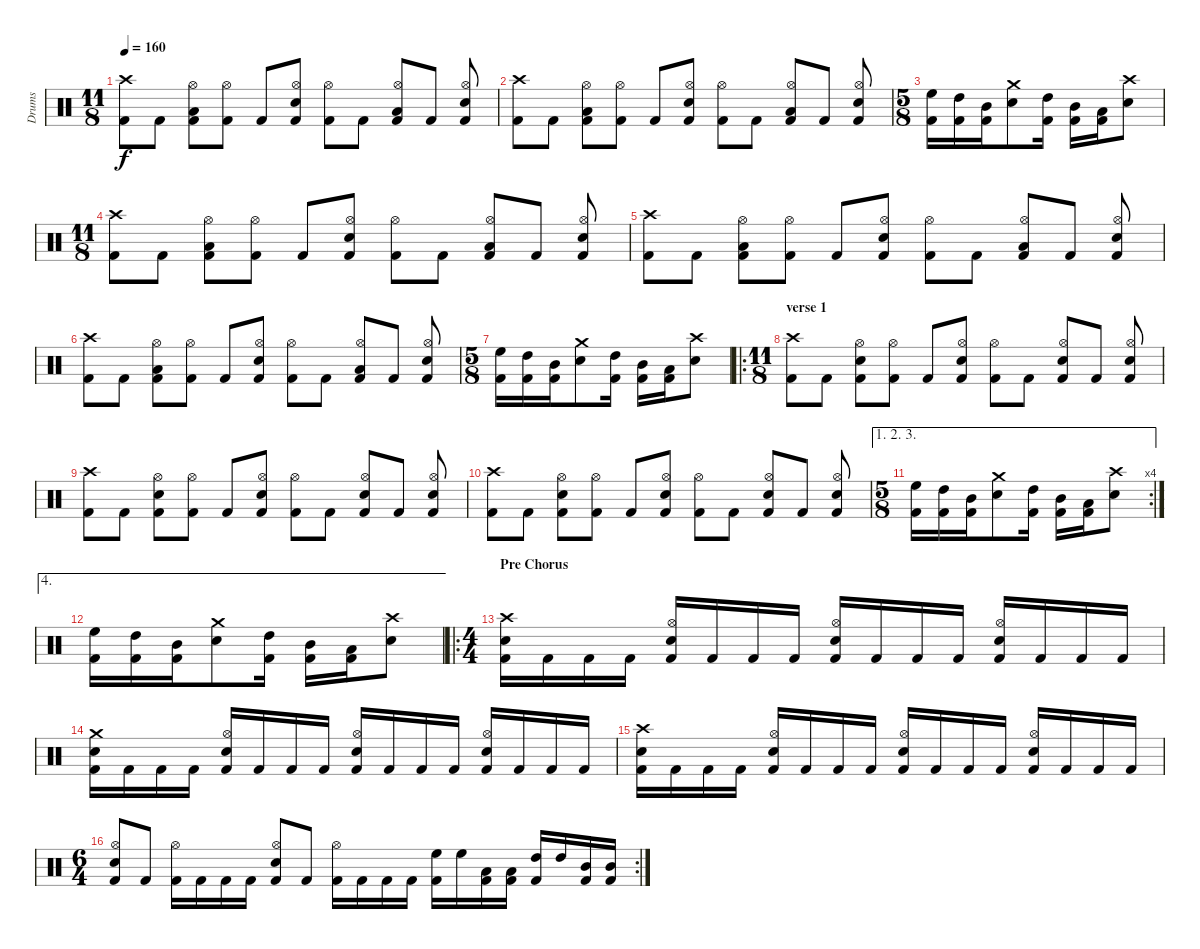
\track ("Drums" "Drums") {instrument percussion}
\staff {score}
\articulation defaults
\ts (11 8)
\tempo 160
\clef neutral
\ks c
("Crash high (hit)" "Kick (hit) 2").8{dy f} "Kick (hit) 2".8 ("Hi-Hat (open)" "Low Floor Tom (hit)" "Kick (hit) 2").8 ("Hi-Hat (open)" "Kick (hit) 2").8 "Kick (hit) 2".8 ("Hi-Hat (open)" "Electric Snare (hit)" "Kick (hit) 2").8 ("Hi-Hat (open)" "Kick (hit) 2").8 "Kick (hit) 2".8 ("Hi-Hat (open)" "Low Floor Tom (hit)" "Kick (hit) 2").8 "Kick (hit) 2".8 ("Hi-Hat (open)" "Snare (hit) 2" "Kick (hit) 2").8 |
("Crash high (hit)" "Kick (hit) 2").8 "Kick (hit) 2".8 ("Hi-Hat (open)" "Low Floor Tom (hit)" "Kick (hit) 2").8 ("Hi-Hat (open)" "Kick (hit) 2").8 "Kick (hit) 2".8 ("Hi-Hat (open)" "Electric Snare (hit)" "Kick (hit) 2").8 ("Hi-Hat (open)" "Kick (hit) 2").8 "Kick (hit) 2".8 ("Hi-Hat (open)" "Low Floor Tom (hit)" "Kick (hit) 2").8 "Kick (hit) 2".8 ("Hi-Hat (open)" "Snare (hit) 2" "Kick (hit) 2").8 |
\ts (5 8)
("High Floor Tom (hit)" "Kick (hit) 2").16 ("High Tom (hit)" "Kick (hit) 2").16 ("Mid Tom (hit)" "Kick (hit) 2").16 ("Crash medium (hit)" "Snare (hit) 2").8 ("High Tom (hit)" "Kick (hit) 2").16 ("Mid Tom (hit)" "Kick (hit) 2").16 ("Low Tom (hit)" "Kick (hit) 2").16 ("Crash high (hit)" "Snare (hit) 2").8 |
\ts (11 8)
("Crash high (hit)" "Kick (hit) 2").8 "Kick (hit) 2".8 ("Hi-Hat (open)" "Low Floor Tom (hit)" "Kick (hit) 2").8 ("Hi-Hat (open)" "Kick (hit) 2").8 "Kick (hit) 2".8 ("Hi-Hat (open)" "Electric Snare (hit)" "Kick (hit) 2").8 ("Hi-Hat (open)" "Kick (hit) 2").8 "Kick (hit) 2".8 ("Hi-Hat (open)" "Low Floor Tom (hit)" "Kick (hit) 2").8 "Kick (hit) 2".8 ("Hi-Hat (open)" "Snare (hit) 2" "Kick (hit) 2").8 |
("Crash high (hit)" "Kick (hit) 2").8 "Kick (hit) 2".8 ("Hi-Hat (open)" "Low Floor Tom (hit)" "Kick (hit) 2").8 ("Hi-Hat (open)" "Kick (hit) 2").8 "Kick (hit) 2".8 ("Hi-Hat (open)" "Electric Snare (hit)" "Kick (hit) 2").8 ("Hi-Hat (open)" "Kick (hit) 2").8 "Kick (hit) 2".8 ("Hi-Hat (open)" "Low Floor Tom (hit)" "Kick (hit) 2").8 "Kick (hit) 2".8 ("Hi-Hat (open)" "Snare (hit) 2" "Kick (hit) 2").8 |
("Crash high (hit)" "Kick (hit) 2").8 "Kick (hit) 2".8 ("Hi-Hat (open)" "Low Floor Tom (hit)" "Kick (hit) 2").8 ("Hi-Hat (open)" "Kick (hit) 2").8 "Kick (hit) 2".8 ("Hi-Hat (open)" "Electric Snare (hit)" "Kick (hit) 2").8 ("Hi-Hat (open)" "Kick (hit) 2").8 "Kick (hit) 2".8 ("Hi-Hat (open)" "Low Floor Tom (hit)" "Kick (hit) 2").8 "Kick (hit) 2".8 ("Hi-Hat (open)" "Snare (hit) 2" "Kick (hit) 2").8 |
\ts (5 8)
("High Floor Tom (hit)" "Kick (hit) 2").16 ("High Tom (hit)" "Kick (hit) 2").16 ("Mid Tom (hit)" "Kick (hit) 2").16 ("Crash medium (hit)" "Snare (hit) 2").8 ("High Tom (hit)" "Kick (hit) 2").16 ("Mid Tom (hit)" "Kick (hit) 2").16 ("Low Tom (hit)" "Kick (hit) 2").16 ("Crash high (hit)" "Snare (hit) 2").8 |
\ro
\ts (11 8)
\section ("" "verse 1")
("Crash high (hit)" "Kick (hit) 2").8 "Kick (hit) 2".8 ("Hi-Hat (open)" "Snare (hit) 2" "Kick (hit) 2").8 ("Hi-Hat (open)" "Kick (hit) 2").8 "Kick (hit) 2".8 ("Hi-Hat (open)" "Snare (hit) 2" "Kick (hit) 2").8 ("Hi-Hat (open)" "Kick (hit) 2").8 "Kick (hit) 2".8 ("Hi-Hat (open)" "Snare (hit) 2" "Kick (hit) 2").8 "Kick (hit) 2".8 ("Hi-Hat (open)" "Snare (hit) 2" "Kick (hit) 2").8 |
("Crash high (hit)" "Kick (hit) 2").8 "Kick (hit) 2".8 ("Hi-Hat (open)" "Snare (hit) 2" "Kick (hit) 2").8 ("Hi-Hat (open)" "Kick (hit) 2").8 "Kick (hit) 2".8 ("Hi-Hat (open)" "Snare (hit) 2" "Kick (hit) 2").8 ("Hi-Hat (open)" "Kick (hit) 2").8 "Kick (hit) 2".8 ("Hi-Hat (open)" "Snare (hit) 2" "Kick (hit) 2").8 "Kick (hit) 2".8 ("Hi-Hat (open)" "Snare (hit) 2" "Kick (hit) 2").8 |
("Crash high (hit)" "Kick (hit) 2").8 "Kick (hit) 2".8 ("Hi-Hat (open)" "Snare (hit) 2" "Kick (hit) 2").8 ("Hi-Hat (open)" "Kick (hit) 2").8 "Kick (hit) 2".8 ("Hi-Hat (open)" "Snare (hit) 2" "Kick (hit) 2").8 ("Hi-Hat (open)" "Kick (hit) 2").8 "Kick (hit) 2".8 ("Hi-Hat (open)" "Snare (hit) 2" "Kick (hit) 2").8 "Kick (hit) 2".8 ("Hi-Hat (open)" "Snare (hit) 2" "Kick (hit) 2").8 |
\ae (1 2 3)
\rc 4
\ts (5 8)
("High Floor Tom (hit)" "Kick (hit) 2").16 ("High Tom (hit)" "Kick (hit) 2").16 ("Mid Tom (hit)" "Kick (hit) 2").16 ("Crash medium (hit)" "Snare (hit) 2").8 ("High Tom (hit)" "Kick (hit) 2").16 ("Mid Tom (hit)" "Kick (hit) 2").16 ("Low Tom (hit)" "Kick (hit) 2").16 ("Crash high (hit)" "Snare (hit) 2").8 |
\ae 4
("High Floor Tom (hit)" "Kick (hit) 2").16 ("High Tom (hit)" "Kick (hit) 2").16 ("Mid Tom (hit)" "Kick (hit) 2").16 ("Crash medium (hit)" "Snare (hit) 2").8 ("High Tom (hit)" "Kick (hit) 2").16 ("Mid Tom (hit)" "Kick (hit) 2").16 ("Low Tom (hit)" "Kick (hit) 2").16 ("Crash high (hit)" "Snare (hit) 2").8 |
\ro
\ts (4 4)
\section ("" "Pre Chorus")
("Crash high (hit)" "Snare (hit) 2" "Kick (hit) 2").16 "Kick (hit) 2".16 "Kick (hit) 2".16 "Kick (hit) 2".16 ("Hi-Hat (open)" "Snare (hit) 2" "Kick (hit) 2").16 "Kick (hit) 2".16 "Kick (hit) 2".16 "Kick (hit) 2".16 ("Hi-Hat (open)" "Snare (hit) 2" "Kick (hit) 2").16 "Kick (hit) 2".16 "Kick (hit) 2".16 "Kick (hit) 2".16 ("Hi-Hat (open)" "Snare (hit) 2" "Kick (hit) 2").16 "Kick (hit) 2".16 "Kick (hit) 2".16 "Kick (hit) 2".16 |
("Crash medium (hit)" "Snare (hit) 2" "Kick (hit) 2").16 "Kick (hit) 2".16 "Kick (hit) 2".16 "Kick (hit) 2".16 ("Hi-Hat (open)" "Snare (hit) 2" "Kick (hit) 2").16 "Kick (hit) 2".16 "Kick (hit) 2".16 "Kick (hit) 2".16 ("Hi-Hat (open)" "Snare (hit) 2" "Kick (hit) 2").16 "Kick (hit) 2".16 "Kick (hit) 2".16 "Kick (hit) 2".16 ("Hi-Hat (open)" "Snare (hit) 2" "Kick (hit) 2").16 "Kick (hit) 2".16 "Kick (hit) 2".16 "Kick (hit) 2".16 |
("Crash high (hit)" "Snare (hit) 2" "Kick (hit) 2").16 "Kick (hit) 2".16 "Kick (hit) 2".16 "Kick (hit) 2".16 ("Hi-Hat (open)" "Snare (hit) 2" "Kick (hit) 2").16 "Kick (hit) 2".16 "Kick (hit) 2".16 "Kick (hit) 2".16 ("Hi-Hat (open)" "Snare (hit) 2" "Kick (hit) 2").16 "Kick (hit) 2".16 "Kick (hit) 2".16 "Kick (hit) 2".16 ("Hi-Hat (open)" "Snare (hit) 2" "Kick (hit) 2").16 "Kick (hit) 2".16 "Kick (hit) 2".16 "Kick (hit) 2".16 |
\rc 2
\ts (6 4)
("Hi-Hat (open)" "Snare (hit) 2" "Kick (hit) 2").8 "Kick (hit) 2".8 ("Hi-Hat (open)" "Kick (hit) 2").16 "Kick (hit) 2".16 "Kick (hit) 2".16 "Kick (hit) 2".16 ("Hi-Hat (open)" "Snare (hit) 2" "Kick (hit) 2").8 "Kick (hit) 2".8 ("Hi-Hat (open)" "Kick (hit) 2").16 "Kick (hit) 2".16 "Kick (hit) 2".16 "Kick (hit) 2".16 ("High Floor Tom (hit)" "Kick (hit) 2").16 "High Floor Tom (hit)".16 ("Low Tom (hit)" "Kick (hit) 2").16 ("Low Tom (hit)" "Kick (hit) 2").16 ("High Tom (hit)" "Kick (hit) 2").16 "High Tom (hit)".16 ("Mid Tom (hit)" "Kick (hit) 2").16 ("Mid Tom (hit)" "Kick (hit) 2").16
